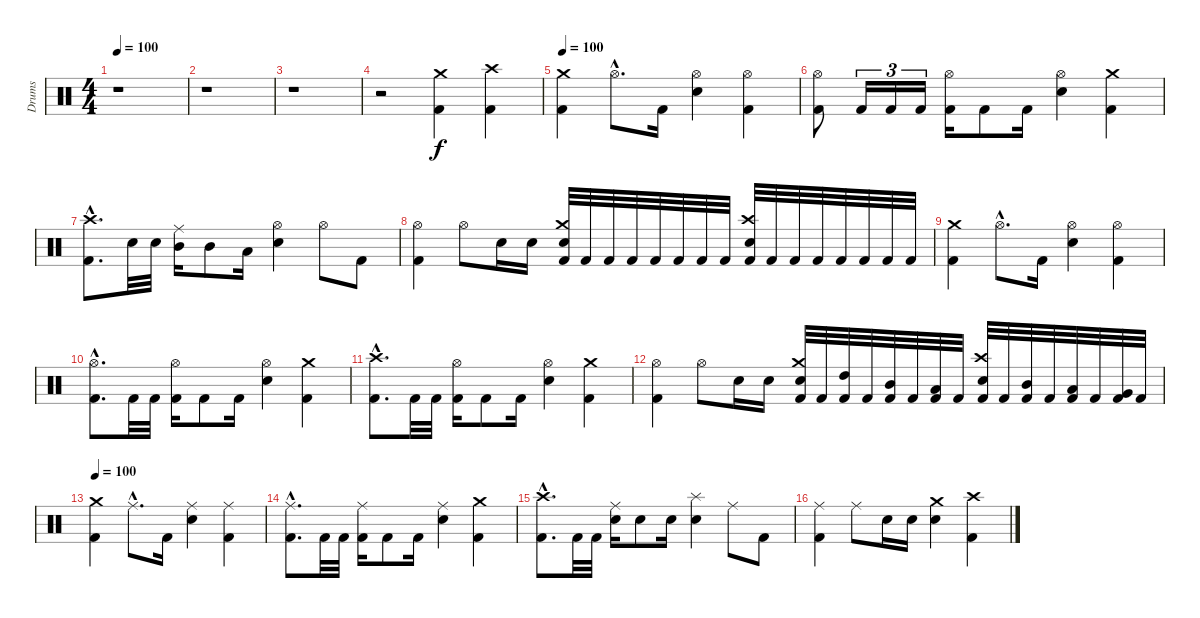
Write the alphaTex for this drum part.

\track ("Drums" "Drums") {instrument percussion}
\staff {score}
\articulation defaults
\ts (4 4)
\tempo 100
\clef neutral
\ks c
r.1{dy f} |
r.1 |
r.1 |
r.2 ("Kick (hit) 2" "Crash medium (hit)").4 ("Kick (hit) 2" "Crash high (hit)").4 |
\tempo 100
("Kick (hit) 2" "Crash medium (hit)").4 "Hi-Hat (open)"{hac}.8{d} "Kick (hit) 2".16 ("Electric Snare (hit)" "Hi-Hat (open)").4 ("Kick (hit) 2" "Hi-Hat (open)").4 |
("Kick (hit) 2" "Hi-Hat (open)").8 "Kick (hit) 2".16{tu (3 2)} "Kick (hit) 2".16{tu (3 2)} "Kick (hit) 2".16{tu (3 2)} ("Kick (hit) 2" "Hi-Hat (open)").16 "Kick (hit) 2".8 "Kick (hit) 2".16 ("Electric Snare (hit)" "Hi-Hat (open)").4 ("Kick (hit) 2" "Crash medium (hit)").4 |
("Kick (hit) 2"{hac} "Crash high (hit)"{hac}).8{d} "Electric Snare (hit)".32 "Electric Snare (hit)".32 ("Mid Tom (hit)" "Ride (middle)").16 "Mid Tom (hit)".8 "Low Tom (hit)".16 ("Electric Snare (hit)" "Hi-Hat (open)").4 "Hi-Hat (open)".8 "Kick (hit) 2".8 |
("Kick (hit) 2" "Hi-Hat (open)").4 "Hi-Hat (open)".8 "Electric Snare (hit)".16 "Electric Snare (hit)".16 ("Kick (hit) 2" "Electric Snare (hit)" "Crash medium (hit)").32 "Kick (hit) 2".32 "Kick (hit) 2".32 "Kick (hit) 2".32 "Kick (hit) 2".32 "Kick (hit) 2".32 "Kick (hit) 2".32 "Kick (hit) 2".32 ("Kick (hit) 2" "Electric Snare (hit)" "Crash high (hit)").32 "Kick (hit) 2".32 "Kick (hit) 2".32 "Kick (hit) 2".32 "Kick (hit) 2".32 "Kick (hit) 2".32 "Kick (hit) 2".32 "Kick (hit) 2".32 |
("Kick (hit) 2" "Crash medium (hit)").4 "Hi-Hat (open)"{hac}.8{d} "Kick (hit) 2".16 ("Electric Snare (hit)" "Hi-Hat (open)").4 ("Kick (hit) 2" "Hi-Hat (open)").4 |
("Kick (hit) 2"{hac} "Hi-Hat (open)"{hac}).8{d} "Kick (hit) 2".32 "Kick (hit) 2".32 ("Kick (hit) 2" "Hi-Hat (open)").16 "Kick (hit) 2".8 "Kick (hit) 2".16 ("Electric Snare (hit)" "Hi-Hat (open)").4 ("Kick (hit) 2" "Crash medium (hit)").4 |
("Kick (hit) 2"{hac} "Crash high (hit)"{hac}).8{d} "Kick (hit) 2".32 "Kick (hit) 2".32 ("Kick (hit) 2" "Hi-Hat (open)").16 "Kick (hit) 2".8 "Kick (hit) 2".16 ("Electric Snare (hit)" "Hi-Hat (open)").4 ("Kick (hit) 2" "Crash medium (hit)").4 |
("Kick (hit) 2" "Hi-Hat (open)").4 "Hi-Hat (open)".8 "Electric Snare (hit)".16 "Electric Snare (hit)".16 ("Kick (hit) 2" "Electric Snare (hit)" "Crash medium (hit)").32 "Kick (hit) 2".32 ("Kick (hit) 2" "High Tom (hit)").32 "Kick (hit) 2".32 ("Kick (hit) 2" "Mid Tom (hit)").32 "Kick (hit) 2".32 ("Kick (hit) 2" "Low Tom (hit)").32 "Kick (hit) 2".32 ("Kick (hit) 2" "Electric Snare (hit)" "Crash high (hit)").32 "Kick (hit) 2".32 ("Kick (hit) 2" "Mid Tom (hit)").32 "Kick (hit) 2".32 ("Kick (hit) 2" "Low Tom (hit)").32 "Kick (hit) 2".32 ("Kick (hit) 2" "Very Low Tom (hit)").32 "Kick (hit) 2".32 |
\tempo 100
("Kick (hit) 2" "Crash medium (hit)").4 "Ride (middle)"{hac}.8{d} "Kick (hit) 2".16 ("Electric Snare (hit)" "Ride (middle)").4 ("Kick (hit) 2" "Ride (middle)").4 |
("Kick (hit) 2"{hac} "Ride (middle)"{hac}).8{d} "Kick (hit) 2".32 "Kick (hit) 2".32 ("Kick (hit) 2" "Ride (middle)").16 "Kick (hit) 2".8 "Kick (hit) 2".16 ("Electric Snare (hit)" "Ride (middle)").4 ("Kick (hit) 2" "Crash medium (hit)").4 |
("Kick (hit) 2"{hac} "Crash high (hit)"{hac}).8{d} "Kick (hit) 2".32 "Kick (hit) 2".32 ("Electric Snare (hit)" "Ride (middle)").16 "Electric Snare (hit)".8 "Electric Snare (hit)".16 ("Electric Snare (hit)" "Splash (hit)").4 "Ride (middle)".8 "Kick (hit) 2".8 |
("Kick (hit) 2" "Ride (middle)").4 "Ride (middle)".8 "Electric Snare (hit)".16 "Electric Snare (hit)".16 ("Electric Snare (hit)" "Crash medium (hit)").4 ("Kick (hit) 2" "Crash high (hit)").4
